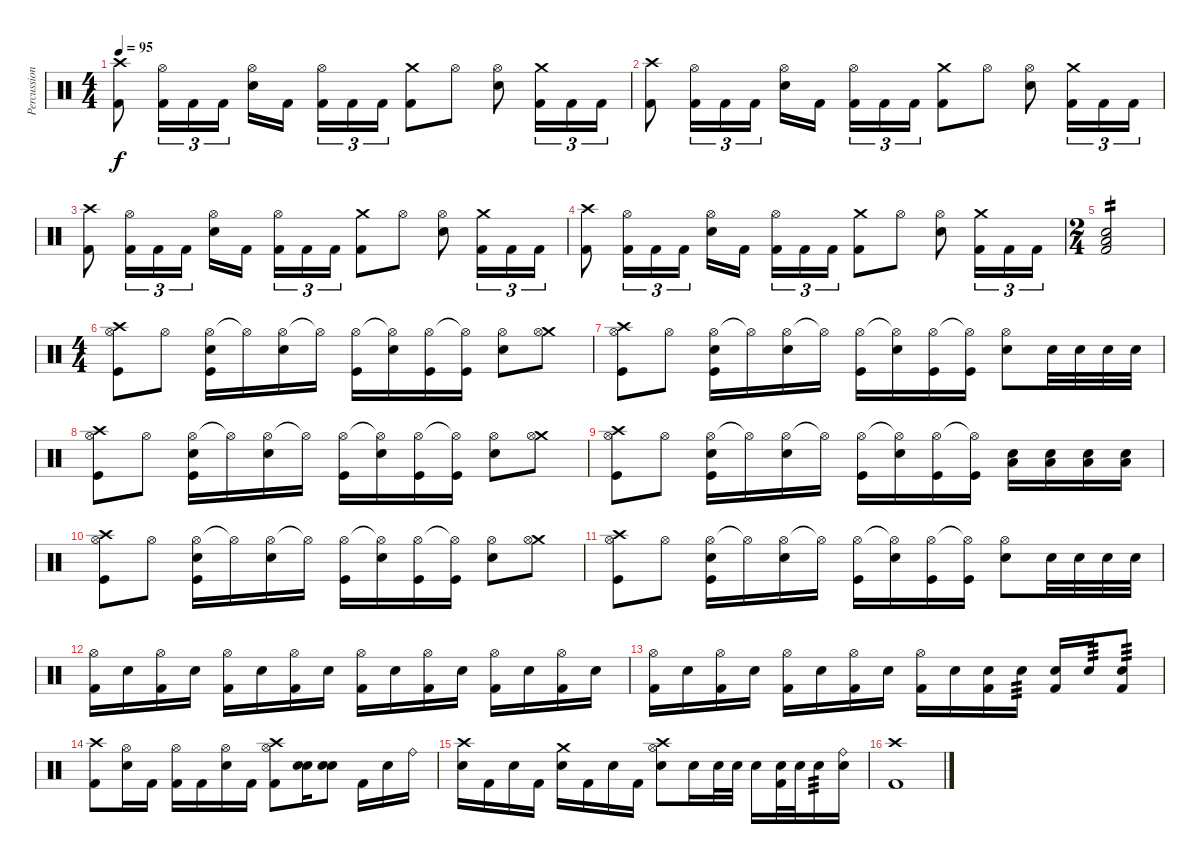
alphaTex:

\track ("Percussion" "Percussion") {instrument percussion}
\staff {score}
\articulation defaults
\ts (4 4)
\tempo 95
\clef neutral
\ks c
("Crash high (hit)" "Kick (hit) 2").8{dy f} ("Hi-Hat (open)" "Kick (hit) 2").16{tu (3 2)} "Kick (hit) 2".16{tu (3 2)} "Kick (hit) 2".16{tu (3 2)} ("Hi-Hat (open)" "Snare (hit) 2").16 "Kick (hit) 2".16 ("Hi-Hat (open)" "Kick (hit) 2").16{tu (3 2)} "Kick (hit) 2".16{tu (3 2)} "Kick (hit) 2".16{tu (3 2)} ("Crash medium (hit)" "Kick (hit) 2").8 "Hi-Hat (open)".8 ("Hi-Hat (open)" "Snare (hit) 2").8 ("Crash medium (hit)" "Kick (hit) 2").16{tu (3 2)} "Kick (hit) 2".16{tu (3 2)} "Kick (hit) 2".16{tu (3 2)} |
("Crash high (hit)" "Kick (hit) 2").8 ("Hi-Hat (open)" "Kick (hit) 2").16{tu (3 2)} "Kick (hit) 2".16{tu (3 2)} "Kick (hit) 2".16{tu (3 2)} ("Hi-Hat (open)" "Snare (hit) 2").16 "Kick (hit) 2".16 ("Hi-Hat (open)" "Kick (hit) 2").16{tu (3 2)} "Kick (hit) 2".16{tu (3 2)} "Kick (hit) 2".16{tu (3 2)} ("Crash medium (hit)" "Kick (hit) 2").8 "Hi-Hat (open)".8 ("Hi-Hat (open)" "Snare (hit) 2").8 ("Crash medium (hit)" "Kick (hit) 2").16{tu (3 2)} "Kick (hit) 2".16{tu (3 2)} "Kick (hit) 2".16{tu (3 2)} |
("Crash high (hit)" "Kick (hit) 2").8 ("Hi-Hat (open)" "Kick (hit) 2").16{tu (3 2)} "Kick (hit) 2".16{tu (3 2)} "Kick (hit) 2".16{tu (3 2)} ("Hi-Hat (open)" "Snare (hit) 2").16 "Kick (hit) 2".16 ("Hi-Hat (open)" "Kick (hit) 2").16{tu (3 2)} "Kick (hit) 2".16{tu (3 2)} "Kick (hit) 2".16{tu (3 2)} ("Crash medium (hit)" "Kick (hit) 2").8 "Hi-Hat (open)".8 ("Hi-Hat (open)" "Snare (hit) 2").8 ("Crash medium (hit)" "Kick (hit) 2").16{tu (3 2)} "Kick (hit) 2".16{tu (3 2)} "Kick (hit) 2".16{tu (3 2)} |
("Crash high (hit)" "Kick (hit) 2").8 ("Hi-Hat (open)" "Kick (hit) 2").16{tu (3 2)} "Kick (hit) 2".16{tu (3 2)} "Kick (hit) 2".16{tu (3 2)} ("Hi-Hat (open)" "Snare (hit) 2").16 "Kick (hit) 2".16 ("Hi-Hat (open)" "Kick (hit) 2").16{tu (3 2)} "Kick (hit) 2".16{tu (3 2)} "Kick (hit) 2".16{tu (3 2)} ("Crash medium (hit)" "Kick (hit) 2").8 "Hi-Hat (open)".8 ("Hi-Hat (open)" "Snare (hit) 2").8 ("Crash medium (hit)" "Kick (hit) 2").16{tu (3 2)} "Kick (hit) 2".16{tu (3 2)} "Kick (hit) 2".16{tu (3 2)} |
\ts (2 4)
("Snare (hit) 2" "Low Floor Tom (hit)" "Kick (hit) 2").2{tp 2} |
\ts (4 4)
("Crash high (hit)" "Hi-Hat (open)" "Kick (hit)").8 "Hi-Hat (open)".8 ("Hi-Hat (open)" "Snare (hit) 2" "Kick (hit)").16 "Hi-Hat (open)"{t}.16 ("Hi-Hat (open)" "Snare (hit) 2").16 "Hi-Hat (open)"{t}.16 ("Hi-Hat (open)" "Kick (hit)").16 ("Hi-Hat (open)"{t} "Snare (hit) 2").16 ("Hi-Hat (open)" "Kick (hit)").16 ("Hi-Hat (open)"{t} "Kick (hit)").16 ("Hi-Hat (open)" "Snare (hit) 2").8 ("Crash medium (hit)" "Hi-Hat (open)").8 |
("Crash high (hit)" "Hi-Hat (open)" "Kick (hit)").8 "Hi-Hat (open)".8 ("Hi-Hat (open)" "Snare (hit) 2" "Kick (hit)").16 "Hi-Hat (open)"{t}.16 ("Hi-Hat (open)" "Snare (hit) 2").16 "Hi-Hat (open)"{t}.16 ("Hi-Hat (open)" "Kick (hit)").16 ("Hi-Hat (open)"{t} "Snare (hit) 2").16 ("Hi-Hat (open)" "Kick (hit)").16 ("Hi-Hat (open)"{t} "Kick (hit)").16 ("Hi-Hat (open)" "Snare (hit) 2").8 "Snare (hit) 2".32 "Snare (hit) 2".32 "Snare (hit) 2".32 "Snare (hit) 2".32 |
("Crash high (hit)" "Hi-Hat (open)" "Kick (hit)").8 "Hi-Hat (open)".8 ("Hi-Hat (open)" "Snare (hit) 2" "Kick (hit)").16 "Hi-Hat (open)"{t}.16 ("Hi-Hat (open)" "Snare (hit) 2").16 "Hi-Hat (open)"{t}.16 ("Hi-Hat (open)" "Kick (hit)").16 ("Hi-Hat (open)"{t} "Snare (hit) 2").16 ("Hi-Hat (open)" "Kick (hit)").16 ("Hi-Hat (open)"{t} "Kick (hit)").16 ("Hi-Hat (open)" "Snare (hit) 2").8 ("Crash medium (hit)" "Hi-Hat (open)").8 |
("Crash high (hit)" "Hi-Hat (open)" "Kick (hit)").8 "Hi-Hat (open)".8 ("Hi-Hat (open)" "Snare (hit) 2" "Kick (hit)").16 "Hi-Hat (open)"{t}.16 ("Hi-Hat (open)" "Snare (hit) 2").16 "Hi-Hat (open)"{t}.16 ("Hi-Hat (open)" "Kick (hit)").16 ("Hi-Hat (open)"{t} "Snare (hit) 2").16 ("Hi-Hat (open)" "Kick (hit)").16 ("Hi-Hat (open)"{t} "Kick (hit)").16 ("Snare (hit) 2" "Low Tom (hit)").16 ("Snare (hit) 2" "Low Tom (hit)").16 ("Snare (hit) 2" "Low Tom (hit)").16 ("Snare (hit) 2" "Low Tom (hit)").16 |
("Crash high (hit)" "Hi-Hat (open)" "Kick (hit)").8 "Hi-Hat (open)".8 ("Hi-Hat (open)" "Snare (hit) 2" "Kick (hit)").16 "Hi-Hat (open)"{t}.16 ("Hi-Hat (open)" "Snare (hit) 2").16 "Hi-Hat (open)"{t}.16 ("Hi-Hat (open)" "Kick (hit)").16 ("Hi-Hat (open)"{t} "Snare (hit) 2").16 ("Hi-Hat (open)" "Kick (hit)").16 ("Hi-Hat (open)"{t} "Kick (hit)").16 ("Hi-Hat (open)" "Snare (hit) 2").8 ("Crash medium (hit)" "Hi-Hat (open)").8 |
("Crash high (hit)" "Hi-Hat (open)" "Kick (hit)").8 "Hi-Hat (open)".8 ("Hi-Hat (open)" "Snare (hit) 2" "Kick (hit)").16 "Hi-Hat (open)"{t}.16 ("Hi-Hat (open)" "Snare (hit) 2").16 "Hi-Hat (open)"{t}.16 ("Hi-Hat (open)" "Kick (hit)").16 ("Hi-Hat (open)"{t} "Snare (hit) 2").16 ("Hi-Hat (open)" "Kick (hit)").16 ("Hi-Hat (open)"{t} "Kick (hit)").16 ("Hi-Hat (open)" "Snare (hit) 2").8 "Snare (hit) 2".32 "Snare (hit) 2".32 "Snare (hit) 2".32 "Snare (hit) 2".32 |
("Hi-Hat (open)" "Kick (hit) 2").16 "Snare (hit) 2".16 ("Hi-Hat (open)" "Kick (hit) 2").16 "Snare (hit) 2".16 ("Hi-Hat (open)" "Kick (hit) 2").16 "Snare (hit) 2".16 ("Hi-Hat (open)" "Kick (hit) 2").16 "Snare (hit) 2".16 ("Hi-Hat (open)" "Kick (hit) 2").16 "Snare (hit) 2".16 ("Hi-Hat (open)" "Kick (hit) 2").16 "Snare (hit) 2".16 ("Hi-Hat (open)" "Kick (hit) 2").16 "Snare (hit) 2".16 ("Hi-Hat (open)" "Kick (hit) 2").16 "Snare (hit) 2".16 |
("Hi-Hat (open)" "Kick (hit) 2").16 "Snare (hit) 2".16 ("Hi-Hat (open)" "Kick (hit) 2").16 "Snare (hit) 2".16 ("Hi-Hat (open)" "Kick (hit) 2").16 "Snare (hit) 2".16 ("Hi-Hat (open)" "Kick (hit) 2").16 "Snare (hit) 2".16 ("Hi-Hat (open)" "Kick (hit) 2").16 "Snare (hit) 2".16 ("Snare (hit) 2" "Kick (hit) 2").16 "Snare (hit) 2".16{tp 3} ("Snare (hit) 2" "Kick (hit) 2").16 "Snare (hit) 2".16{tp 3} ("Snare (hit) 2" "Kick (hit) 2").8{tp 3} |
("Crash high (hit)" "Kick (hit) 2").8 ("Hi-Hat (open)" "Snare (hit) 2").16 "Kick (hit) 2".16 ("Hi-Hat (open)" "Kick (hit) 2").16 "Kick (hit) 2".16 ("Hi-Hat (open)" "Snare (hit) 2").16 "Kick (hit) 2".16 ("Crash high (hit)" "Hi-Hat (open)" "Kick (hit) 2").8 ("Snare (hit) 2" "Snare (hit) 2").16 ("Snare (hit) 2" "Snare (hit) 2").8 "Kick (hit) 2".16 "Snare (hit) 2".16 "Ride (bell)".16 |
("Crash high (hit)" "Snare (hit) 2").16 "Kick (hit) 2".16 "Snare (hit) 2".16 "Kick (hit) 2".16 ("Crash medium (hit)" "Snare (hit) 2").16 "Kick (hit) 2".16 "Snare (hit) 2".16 "Kick (hit) 2".16 ("Crash high (hit)" "Hi-Hat (open)" "Snare (hit) 2").8 "Snare (hit) 2".16 "Snare (hit) 2".32 "Snare (hit) 2".32 "Snare (hit) 2".16 ("Snare (hit) 2" "Kick (hit) 2").32 "Snare (hit) 2".32 "Snare (hit) 2".16{tp 3} ("Ride (bell)" "Snare (hit) 2").16 |
("Crash high (hit)" "Kick (hit) 2").1
